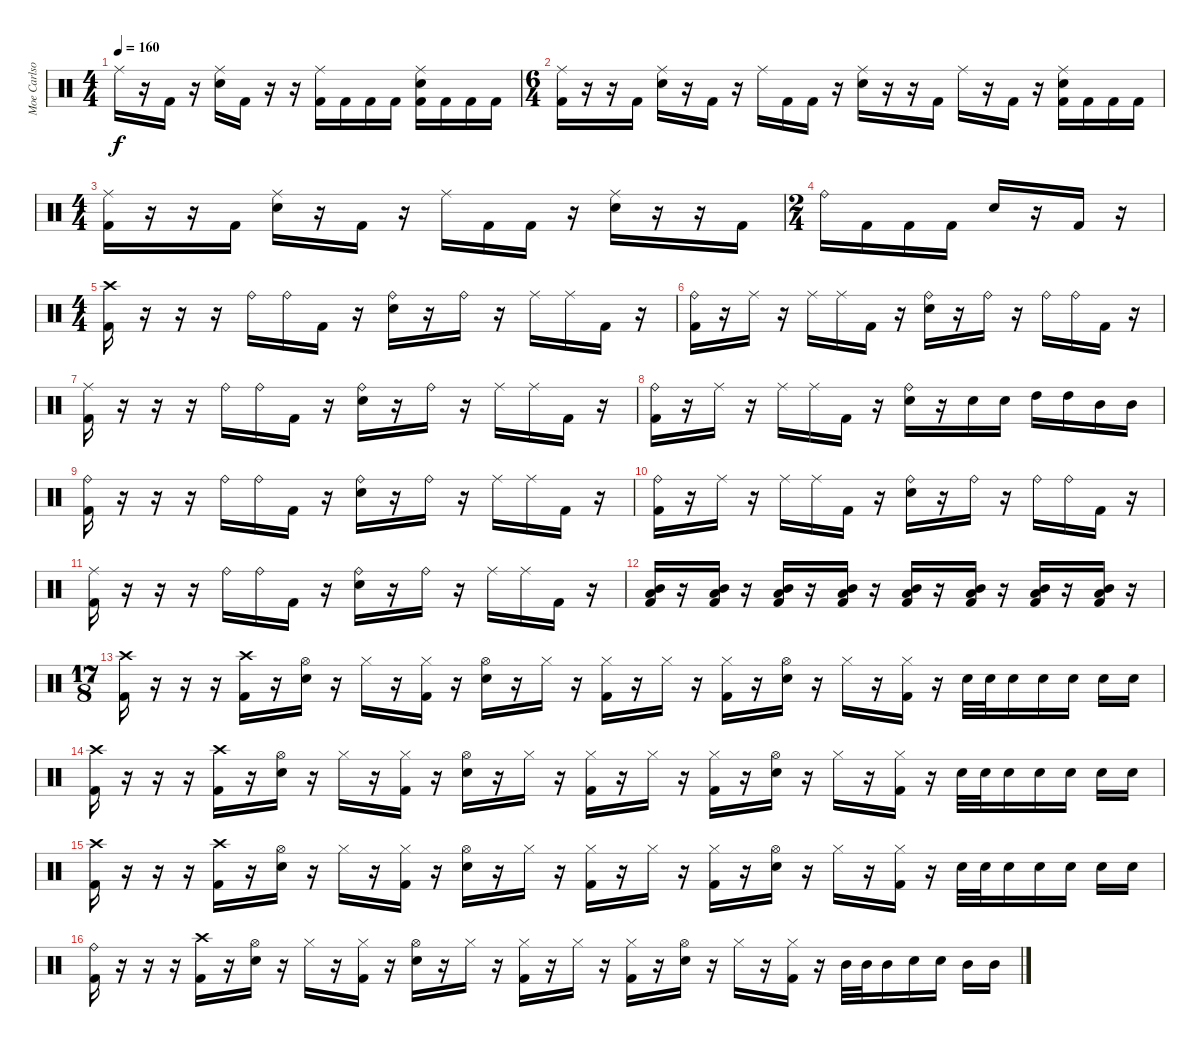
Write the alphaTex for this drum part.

\track ("Moe Carlson" "Moe Carlso") {instrument percussion}
\staff {score}
\articulation defaults
\ts (4 4)
\tempo 160
\clef neutral
\ks c "Ride (middle)".16{dy f}
r.16 "Kick (hit) 2".16 r.16 ("Ride (middle)" "Electric Snare (hit)").16 "Kick (hit) 2".16 r.16 r.16 ("Ride (middle)" "Kick (hit) 2").16 "Kick (hit) 2".16 "Kick (hit) 2".16 "Kick (hit) 2".16 ("Ride (middle)" "Electric Snare (hit)" "Kick (hit) 2").16 "Kick (hit) 2".16 "Kick (hit) 2".16 "Kick (hit) 2".16 |
\ts (6 4)
("Ride (middle)" "Kick (hit) 2").16 r.16 r.16 "Kick (hit) 2".16 ("Ride (middle)" "Electric Snare (hit)").16 r.16 "Kick (hit) 2".16 r.16 "Ride (middle)".16 "Kick (hit) 2".16 "Kick (hit) 2".16 r.16 ("Ride (middle)" "Electric Snare (hit)").16 r.16 r.16 "Kick (hit) 2".16 "Ride (middle)".16 r.16 "Kick (hit) 2".16 r.16 ("Ride (middle)" "Electric Snare (hit)" "Kick (hit) 2").16 "Kick (hit) 2".16 "Kick (hit) 2".16 "Kick (hit) 2".16 |
\ts (4 4)
("Ride (middle)" "Kick (hit) 2").16 r.16 r.16 "Kick (hit) 2".16 ("Ride (middle)" "Electric Snare (hit)").16 r.16 "Kick (hit) 2".16 r.16 "Ride (middle)".16 "Kick (hit) 2".16 "Kick (hit) 2".16 r.16 ("Ride (middle)" "Electric Snare (hit)").16 r.16 r.16 "Kick (hit) 2".16 |
\ts (2 4)
"Ride (bell)".16 "Kick (hit) 2".16 "Kick (hit) 2".16 "Kick (hit) 2".16 "Electric Snare (hit)".16 r.16 "Kick (hit) 2".16 r.16 |
\ts (4 4)
("Crash high (hit)" "Kick (hit) 2").16 r.16 r.16 r.16 "Ride (bell)".16 "Ride (bell)".16 "Kick (hit) 2".16 r.16 ("Ride (bell)" "Electric Snare (hit)").16 r.16 "Ride (bell)".16 r.16 "Ride (middle)".16 "Ride (middle)".16 "Kick (hit) 2".16 r.16 |
("Ride (bell)" "Kick (hit) 2").16 r.16 "Ride (middle)".16 r.16 "Ride (middle)".16 "Ride (middle)".16 "Kick (hit) 2".16 r.16 ("Ride (bell)" "Electric Snare (hit)").16 r.16 "Ride (bell)".16 r.16 "Ride (bell)".16 "Ride (bell)".16 "Kick (hit) 2".16 r.16 |
("Ride (middle)" "Kick (hit) 2").16 r.16 r.16 r.16 "Ride (bell)".16 "Ride (bell)".16 "Kick (hit) 2".16 r.16 ("Ride (bell)" "Electric Snare (hit)").16 r.16 "Ride (bell)".16 r.16 "Ride (middle)".16 "Ride (middle)".16 "Kick (hit) 2".16 r.16 |
("Ride (bell)" "Kick (hit) 2").16 r.16 "Ride (middle)".16 r.16 "Ride (middle)".16 "Ride (middle)".16 "Kick (hit) 2".16 r.16 ("Ride (bell)" "Electric Snare (hit)").16 r.16 "Electric Snare (hit)".16 "Electric Snare (hit)".16 "High Tom (hit)".16 "High Tom (hit)".16 "Mid Tom (hit)".16 "Mid Tom (hit)".16 |
("Ride (bell)" "Kick (hit) 2").16 r.16 r.16 r.16 "Ride (bell)".16 "Ride (bell)".16 "Kick (hit) 2".16 r.16 ("Ride (bell)" "Electric Snare (hit)").16 r.16 "Ride (bell)".16 r.16 "Ride (middle)".16 "Ride (middle)".16 "Kick (hit) 2".16 r.16 |
("Ride (bell)" "Kick (hit) 2").16 r.16 "Ride (middle)".16 r.16 "Ride (middle)".16 "Ride (middle)".16 "Kick (hit) 2".16 r.16 ("Ride (bell)" "Electric Snare (hit)").16 r.16 "Ride (bell)".16 r.16 "Ride (bell)".16 "Ride (bell)".16 "Kick (hit) 2".16 r.16 |
("Ride (middle)" "Kick (hit) 2").16 r.16 r.16 r.16 "Ride (bell)".16 "Ride (bell)".16 "Kick (hit) 2".16 r.16 ("Ride (bell)" "Electric Snare (hit)").16 r.16 "Ride (bell)".16 r.16 "Ride (middle)".16 "Ride (middle)".16 "Kick (hit) 2".16 r.16 |
("Mid Tom (hit)" "Low Tom (hit)" "Kick (hit) 2").16 r.16 ("Mid Tom (hit)" "Low Tom (hit)" "Kick (hit) 2").16 r.16 ("Mid Tom (hit)" "Low Tom (hit)" "Kick (hit) 2").16 r.16 ("Mid Tom (hit)" "Low Tom (hit)" "Kick (hit) 2").16 r.16 ("Mid Tom (hit)" "Low Tom (hit)" "Kick (hit) 2").16 r.16 ("Mid Tom (hit)" "Low Tom (hit)" "Kick (hit) 2").16 r.16 ("Mid Tom (hit)" "Low Tom (hit)" "Kick (hit) 2").16 r.16 ("Mid Tom (hit)" "Low Tom (hit)" "Kick (hit) 2").16 r.16 |
\ts (17 8)
("Crash high (hit)" "Kick (hit) 2").16 r.16 r.16 r.16 ("Crash high (hit)" "Kick (hit) 2").16 r.16 ("Hi-Hat (open)" "Electric Snare (hit)").16 r.16 "Hi-Hat (closed)".16 r.16 ("Hi-Hat (closed)" "Kick (hit) 2").16 r.16 ("Hi-Hat (open)" "Electric Snare (hit)").16 r.16 "Hi-Hat (closed)".16 r.16 ("Hi-Hat (closed)" "Kick (hit) 2").16 r.16 "Hi-Hat (closed)".16 r.16 ("Hi-Hat (closed)" "Kick (hit) 2").16 r.16 ("Hi-Hat (open)" "Electric Snare (hit)").16 r.16 "Hi-Hat (closed)".16 r.16 ("Hi-Hat (closed)" "Kick (hit) 2").16 r.16 "Electric Snare (hit)".32 "Electric Snare (hit)".32 "Electric Snare (hit)".16 "Electric Snare (hit)".16 "Electric Snare (hit)".16 "Electric Snare (hit)".16 "Electric Snare (hit)".16 |
("Crash high (hit)" "Kick (hit) 2").16 r.16 r.16 r.16 ("Crash high (hit)" "Kick (hit) 2").16 r.16 ("Hi-Hat (open)" "Electric Snare (hit)").16 r.16 "Hi-Hat (closed)".16 r.16 ("Hi-Hat (closed)" "Kick (hit) 2").16 r.16 ("Hi-Hat (open)" "Electric Snare (hit)").16 r.16 "Hi-Hat (closed)".16 r.16 ("Hi-Hat (closed)" "Kick (hit) 2").16 r.16 "Hi-Hat (closed)".16 r.16 ("Hi-Hat (closed)" "Kick (hit) 2").16 r.16 ("Hi-Hat (open)" "Electric Snare (hit)").16 r.16 "Hi-Hat (closed)".16 r.16 ("Hi-Hat (closed)" "Kick (hit) 2").16 r.16 "Electric Snare (hit)".32 "Electric Snare (hit)".32 "Electric Snare (hit)".16 "Electric Snare (hit)".16 "Electric Snare (hit)".16 "Electric Snare (hit)".16 "Electric Snare (hit)".16 |
("Crash high (hit)" "Kick (hit) 2").16 r.16 r.16 r.16 ("Crash high (hit)" "Kick (hit) 2").16 r.16 ("Hi-Hat (open)" "Electric Snare (hit)").16 r.16 "Hi-Hat (closed)".16 r.16 ("Hi-Hat (closed)" "Kick (hit) 2").16 r.16 ("Hi-Hat (open)" "Electric Snare (hit)").16 r.16 "Hi-Hat (closed)".16 r.16 ("Hi-Hat (closed)" "Kick (hit) 2").16 r.16 "Hi-Hat (closed)".16 r.16 ("Hi-Hat (closed)" "Kick (hit) 2").16 r.16 ("Hi-Hat (open)" "Electric Snare (hit)").16 r.16 "Hi-Hat (closed)".16 r.16 ("Hi-Hat (closed)" "Kick (hit) 2").16 r.16 "Electric Snare (hit)".32 "Electric Snare (hit)".32 "Electric Snare (hit)".16 "Electric Snare (hit)".16 "Electric Snare (hit)".16 "Electric Snare (hit)".16 "Electric Snare (hit)".16 |
("Ride (bell)" "Kick (hit) 2").16 r.16 r.16 r.16 ("Crash high (hit)" "Kick (hit) 2").16 r.16 ("Hi-Hat (open)" "Electric Snare (hit)").16 r.16 "Hi-Hat (closed)".16 r.16 ("Hi-Hat (closed)" "Kick (hit) 2").16 r.16 ("Hi-Hat (open)" "Electric Snare (hit)").16 r.16 "Hi-Hat (closed)".16 r.16 ("Hi-Hat (closed)" "Kick (hit) 2").16 r.16 "Hi-Hat (closed)".16 r.16 ("Hi-Hat (closed)" "Kick (hit) 2").16 r.16 ("Hi-Hat (open)" "Electric Snare (hit)").16 r.16 "Hi-Hat (closed)".16 r.16 ("Hi-Hat (closed)" "Kick (hit) 2").16 r.16 "Mid Tom (hit)".32 "Mid Tom (hit)".32 "Mid Tom (hit)".16 "Electric Snare (hit)".16 "Electric Snare (hit)".16 "Mid Tom (hit)".16 "Mid Tom (hit)".16
